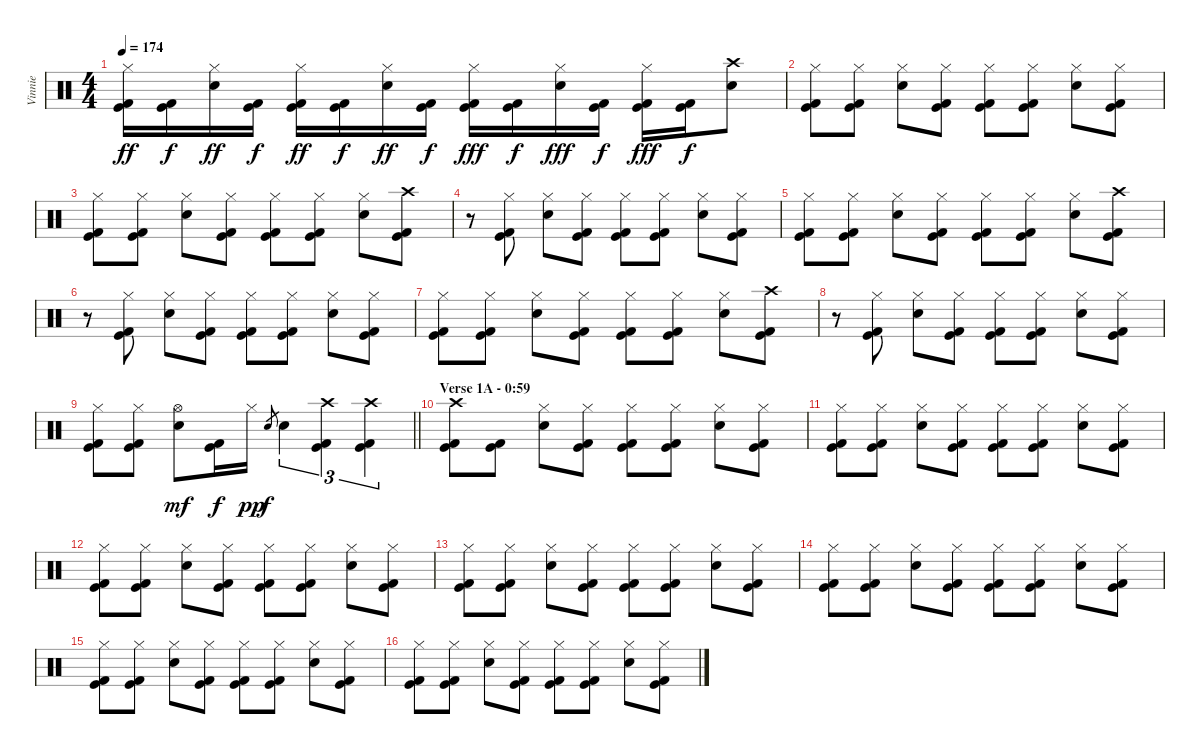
\track ("Vinnie" "Vinnie") {instrument percussion}
\staff {score}
\articulation defaults
\ts (4 4)
\tempo 174
\clef neutral
\ks c
("Hi-Hat (closed)" "Kick (hit)" "Kick (hit) 2").16{dy ff} ("Kick (hit)" "Kick (hit) 2").16{dy f} ("Hi-Hat (closed)" "Electric Snare (hit)").16{dy ff} ("Kick (hit)" "Kick (hit) 2").16{dy f} ("Hi-Hat (closed)" "Kick (hit)" "Kick (hit) 2").16{dy ff} ("Kick (hit)" "Kick (hit) 2").16{dy f} ("Hi-Hat (closed)" "Electric Snare (hit)").16{dy ff} ("Kick (hit)" "Kick (hit) 2").16{dy f} ("Hi-Hat (closed)" "Kick (hit)" "Kick (hit) 2").16{dy fff} ("Kick (hit)" "Kick (hit) 2").16{dy f} ("Hi-Hat (closed)" "Electric Snare (hit)").16{dy fff} ("Kick (hit)" "Kick (hit) 2").16{dy f} ("Hi-Hat (closed)" "Kick (hit)" "Kick (hit) 2").16{dy fff} ("Kick (hit)" "Kick (hit) 2").16{dy f} ("Crash high (hit)" "Electric Snare (hit)").8 |
("Hi-Hat (closed)" "Kick (hit)" "Kick (hit) 2").8 ("Hi-Hat (closed)" "Kick (hit)" "Kick (hit) 2").8 ("Hi-Hat (closed)" "Electric Snare (hit)").8 ("Hi-Hat (closed)" "Kick (hit)" "Kick (hit) 2").8 ("Hi-Hat (closed)" "Kick (hit)" "Kick (hit) 2").8 ("Hi-Hat (closed)" "Kick (hit)" "Kick (hit) 2").8 ("Hi-Hat (closed)" "Electric Snare (hit)").8 ("Hi-Hat (closed)" "Kick (hit)" "Kick (hit) 2").8 |
("Hi-Hat (closed)" "Kick (hit)" "Kick (hit) 2").8 ("Hi-Hat (closed)" "Kick (hit)" "Kick (hit) 2").8 ("Hi-Hat (closed)" "Electric Snare (hit)").8 ("Hi-Hat (closed)" "Kick (hit)" "Kick (hit) 2").8 ("Hi-Hat (closed)" "Kick (hit)" "Kick (hit) 2").8 ("Hi-Hat (closed)" "Kick (hit)" "Kick (hit) 2").8 ("Hi-Hat (closed)" "Electric Snare (hit)").8 ("Crash high (hit)" "Kick (hit)" "Kick (hit) 2").8 |
r.8 ("Hi-Hat (closed)" "Kick (hit)" "Kick (hit) 2").8 ("Hi-Hat (closed)" "Electric Snare (hit)").8 ("Hi-Hat (closed)" "Kick (hit)" "Kick (hit) 2").8 ("Hi-Hat (closed)" "Kick (hit)" "Kick (hit) 2").8 ("Hi-Hat (closed)" "Kick (hit)" "Kick (hit) 2").8 ("Hi-Hat (closed)" "Electric Snare (hit)").8 ("Hi-Hat (closed)" "Kick (hit)" "Kick (hit) 2").8 |
("Hi-Hat (closed)" "Kick (hit)" "Kick (hit) 2").8 ("Hi-Hat (closed)" "Kick (hit)" "Kick (hit) 2").8 ("Hi-Hat (closed)" "Electric Snare (hit)").8 ("Hi-Hat (closed)" "Kick (hit)" "Kick (hit) 2").8 ("Hi-Hat (closed)" "Kick (hit)" "Kick (hit) 2").8 ("Hi-Hat (closed)" "Kick (hit)" "Kick (hit) 2").8 ("Hi-Hat (closed)" "Electric Snare (hit)").8 ("Crash high (hit)" "Kick (hit)" "Kick (hit) 2").8 |
r.8 ("Hi-Hat (closed)" "Kick (hit)" "Kick (hit) 2").8 ("Hi-Hat (closed)" "Electric Snare (hit)").8 ("Hi-Hat (closed)" "Kick (hit)" "Kick (hit) 2").8 ("Hi-Hat (closed)" "Kick (hit)" "Kick (hit) 2").8 ("Hi-Hat (closed)" "Kick (hit)" "Kick (hit) 2").8 ("Hi-Hat (closed)" "Electric Snare (hit)").8 ("Hi-Hat (closed)" "Kick (hit)" "Kick (hit) 2").8 |
("Hi-Hat (closed)" "Kick (hit)" "Kick (hit) 2").8 ("Hi-Hat (closed)" "Kick (hit)" "Kick (hit) 2").8 ("Hi-Hat (closed)" "Electric Snare (hit)").8 ("Hi-Hat (closed)" "Kick (hit)" "Kick (hit) 2").8 ("Hi-Hat (closed)" "Kick (hit)" "Kick (hit) 2").8 ("Hi-Hat (closed)" "Kick (hit)" "Kick (hit) 2").8 ("Hi-Hat (closed)" "Electric Snare (hit)").8 ("Crash high (hit)" "Kick (hit)" "Kick (hit) 2").8 |
r.8 ("Hi-Hat (closed)" "Kick (hit)" "Kick (hit) 2").8 ("Hi-Hat (closed)" "Electric Snare (hit)").8 ("Hi-Hat (closed)" "Kick (hit)" "Kick (hit) 2").8 ("Hi-Hat (closed)" "Kick (hit)" "Kick (hit) 2").8 ("Hi-Hat (closed)" "Kick (hit)" "Kick (hit) 2").8 ("Hi-Hat (closed)" "Electric Snare (hit)").8 ("Hi-Hat (closed)" "Kick (hit)" "Kick (hit) 2").8 |
\barLineRight lightlight
("Hi-Hat (closed)" "Kick (hit)" "Kick (hit) 2").8 ("Hi-Hat (closed)" "Kick (hit)" "Kick (hit) 2").8 ("Hi-Hat (open)" "Electric Snare (hit)").8{dy mf} ("Kick (hit)" "Kick (hit) 2").16{dy f} "Hi-Hat (closed)".16{dy pp} "Electric Snare (hit)".8{gr dy f} "Electric Snare (hit)".4{tu (3 2)} ("Crash high (hit)" "Kick (hit)" "Kick (hit) 2").4{tu (3 2)} ("Crash high (hit)" "Kick (hit)" "Kick (hit) 2").4{tu (3 2)} |
\section ("" "Verse 1A - 0:59")
("Crash high (hit)" "Kick (hit)" "Kick (hit) 2").8 ("Kick (hit)" "Kick (hit) 2").8 ("Hi-Hat (closed)" "Electric Snare (hit)").8 ("Hi-Hat (closed)" "Kick (hit)" "Kick (hit) 2").8 ("Hi-Hat (closed)" "Kick (hit)" "Kick (hit) 2").8 ("Hi-Hat (closed)" "Kick (hit)" "Kick (hit) 2").8 ("Hi-Hat (closed)" "Electric Snare (hit)").8 ("Hi-Hat (closed)" "Kick (hit)" "Kick (hit) 2").8 |
("Hi-Hat (closed)" "Kick (hit)" "Kick (hit) 2").8 ("Hi-Hat (closed)" "Kick (hit)" "Kick (hit) 2").8 ("Hi-Hat (closed)" "Electric Snare (hit)").8 ("Hi-Hat (closed)" "Kick (hit)" "Kick (hit) 2").8 ("Hi-Hat (closed)" "Kick (hit)" "Kick (hit) 2").8 ("Hi-Hat (closed)" "Kick (hit)" "Kick (hit) 2").8 ("Hi-Hat (closed)" "Electric Snare (hit)").8 ("Hi-Hat (closed)" "Kick (hit)" "Kick (hit) 2").8 |
("Hi-Hat (closed)" "Kick (hit)" "Kick (hit) 2").8 ("Hi-Hat (closed)" "Kick (hit)" "Kick (hit) 2").8 ("Hi-Hat (closed)" "Electric Snare (hit)").8 ("Hi-Hat (closed)" "Kick (hit)" "Kick (hit) 2").8 ("Hi-Hat (closed)" "Kick (hit)" "Kick (hit) 2").8 ("Hi-Hat (closed)" "Kick (hit)" "Kick (hit) 2").8 ("Hi-Hat (closed)" "Electric Snare (hit)").8 ("Hi-Hat (closed)" "Kick (hit)" "Kick (hit) 2").8 |
("Hi-Hat (closed)" "Kick (hit)" "Kick (hit) 2").8 ("Hi-Hat (closed)" "Kick (hit)" "Kick (hit) 2").8 ("Hi-Hat (closed)" "Electric Snare (hit)").8 ("Hi-Hat (closed)" "Kick (hit)" "Kick (hit) 2").8 ("Hi-Hat (closed)" "Kick (hit)" "Kick (hit) 2").8 ("Hi-Hat (closed)" "Kick (hit)" "Kick (hit) 2").8 ("Hi-Hat (closed)" "Electric Snare (hit)").8 ("Hi-Hat (closed)" "Kick (hit)" "Kick (hit) 2").8 |
("Hi-Hat (closed)" "Kick (hit)" "Kick (hit) 2").8 ("Hi-Hat (closed)" "Kick (hit)" "Kick (hit) 2").8 ("Hi-Hat (closed)" "Electric Snare (hit)").8 ("Hi-Hat (closed)" "Kick (hit)" "Kick (hit) 2").8 ("Hi-Hat (closed)" "Kick (hit)" "Kick (hit) 2").8 ("Hi-Hat (closed)" "Kick (hit)" "Kick (hit) 2").8 ("Hi-Hat (closed)" "Electric Snare (hit)").8 ("Hi-Hat (closed)" "Kick (hit)" "Kick (hit) 2").8 |
("Hi-Hat (closed)" "Kick (hit)" "Kick (hit) 2").8 ("Hi-Hat (closed)" "Kick (hit)" "Kick (hit) 2").8 ("Hi-Hat (closed)" "Electric Snare (hit)").8 ("Hi-Hat (closed)" "Kick (hit)" "Kick (hit) 2").8 ("Hi-Hat (closed)" "Kick (hit)" "Kick (hit) 2").8 ("Hi-Hat (closed)" "Kick (hit)" "Kick (hit) 2").8 ("Hi-Hat (closed)" "Electric Snare (hit)").8 ("Hi-Hat (closed)" "Kick (hit)" "Kick (hit) 2").8 |
("Hi-Hat (closed)" "Kick (hit)" "Kick (hit) 2").8 ("Hi-Hat (closed)" "Kick (hit)" "Kick (hit) 2").8 ("Hi-Hat (closed)" "Electric Snare (hit)").8 ("Hi-Hat (closed)" "Kick (hit)" "Kick (hit) 2").8 ("Hi-Hat (closed)" "Kick (hit)" "Kick (hit) 2").8 ("Hi-Hat (closed)" "Kick (hit)" "Kick (hit) 2").8 ("Hi-Hat (closed)" "Electric Snare (hit)").8 ("Hi-Hat (closed)" "Kick (hit)" "Kick (hit) 2").8
